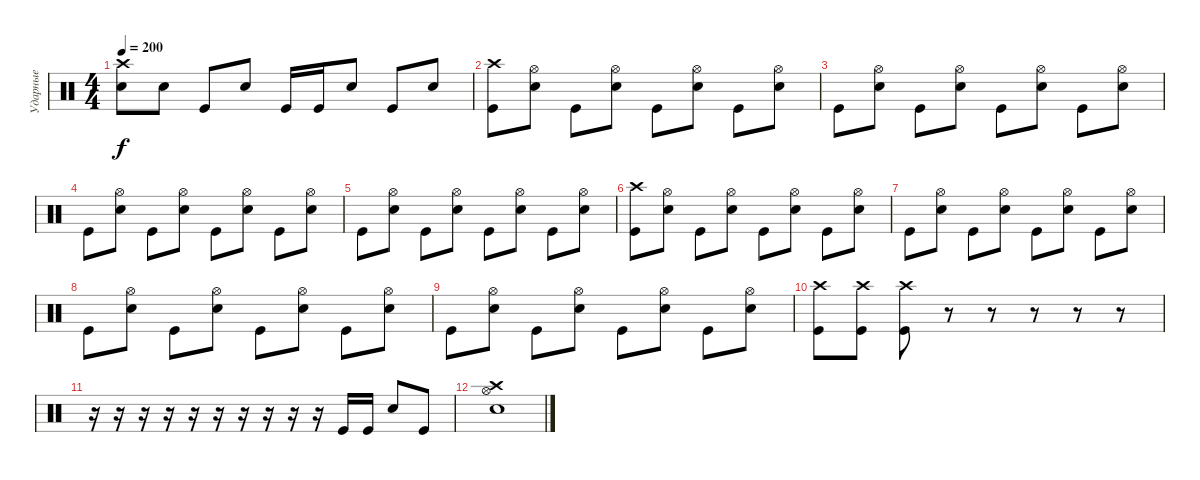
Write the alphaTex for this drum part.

\track ("Ударные" "Ударные") {instrument percussion}
\staff {score}
\articulation defaults
\ts (4 4)
\tempo 200
\clef neutral
\ks c
("Electric Snare (hit)" "Crash high (hit)").8{dy f} "Electric Snare (hit)".8 "Kick (hit)".8 "Electric Snare (hit)".8 "Kick (hit)".16 "Kick (hit)".16 "Electric Snare (hit)".8 "Kick (hit)".8 "Electric Snare (hit)".8 |
("Crash high (hit)" "Kick (hit)").8 ("Hi-Hat (open)" "Electric Snare (hit)").8 "Kick (hit)".8 ("Hi-Hat (open)" "Electric Snare (hit)").8 "Kick (hit)".8 ("Hi-Hat (open)" "Electric Snare (hit)").8 "Kick (hit)".8 ("Hi-Hat (open)" "Electric Snare (hit)").8 |
"Kick (hit)".8 ("Hi-Hat (open)" "Electric Snare (hit)").8 "Kick (hit)".8 ("Hi-Hat (open)" "Electric Snare (hit)").8 "Kick (hit)".8 ("Hi-Hat (open)" "Electric Snare (hit)").8 "Kick (hit)".8 ("Hi-Hat (open)" "Electric Snare (hit)").8 |
"Kick (hit)".8 ("Hi-Hat (open)" "Electric Snare (hit)").8 "Kick (hit)".8 ("Hi-Hat (open)" "Electric Snare (hit)").8 "Kick (hit)".8 ("Hi-Hat (open)" "Electric Snare (hit)").8 "Kick (hit)".8 ("Hi-Hat (open)" "Electric Snare (hit)").8 |
"Kick (hit)".8 ("Hi-Hat (open)" "Electric Snare (hit)").8 "Kick (hit)".8 ("Hi-Hat (open)" "Electric Snare (hit)").8 "Kick (hit)".8 ("Hi-Hat (open)" "Electric Snare (hit)").8 "Kick (hit)".8 ("Hi-Hat (open)" "Electric Snare (hit)").8 |
("Crash high (hit)" "Kick (hit)").8 ("Hi-Hat (open)" "Electric Snare (hit)").8 "Kick (hit)".8 ("Hi-Hat (open)" "Electric Snare (hit)").8 "Kick (hit)".8 ("Hi-Hat (open)" "Electric Snare (hit)").8 "Kick (hit)".8 ("Hi-Hat (open)" "Electric Snare (hit)").8 |
"Kick (hit)".8 ("Hi-Hat (open)" "Electric Snare (hit)").8 "Kick (hit)".8 ("Hi-Hat (open)" "Electric Snare (hit)").8 "Kick (hit)".8 ("Hi-Hat (open)" "Electric Snare (hit)").8 "Kick (hit)".8 ("Hi-Hat (open)" "Electric Snare (hit)").8 |
"Kick (hit)".8 ("Hi-Hat (open)" "Electric Snare (hit)").8 "Kick (hit)".8 ("Hi-Hat (open)" "Electric Snare (hit)").8 "Kick (hit)".8 ("Hi-Hat (open)" "Electric Snare (hit)").8 "Kick (hit)".8 ("Hi-Hat (open)" "Electric Snare (hit)").8 |
"Kick (hit)".8 ("Hi-Hat (open)" "Electric Snare (hit)").8 "Kick (hit)".8 ("Hi-Hat (open)" "Electric Snare (hit)").8 "Kick (hit)".8 ("Hi-Hat (open)" "Electric Snare (hit)").8 "Kick (hit)".8 ("Hi-Hat (open)" "Electric Snare (hit)").8 |
("Crash high (hit)" "Kick (hit)").8 ("Crash high (hit)" "Kick (hit)").8 ("Crash high (hit)" "Kick (hit)").8 r.8 r.8 r.8 r.8 r.8 |
r.16 r.16 r.16 r.16 r.16 r.16 r.16 r.16 r.16 r.16 "Kick (hit)".16 "Kick (hit)".16 "Electric Snare (hit)".8 "Kick (hit)".8 |
("Hi-Hat (open)" "Electric Snare (hit)" "Crash high (hit)").1
